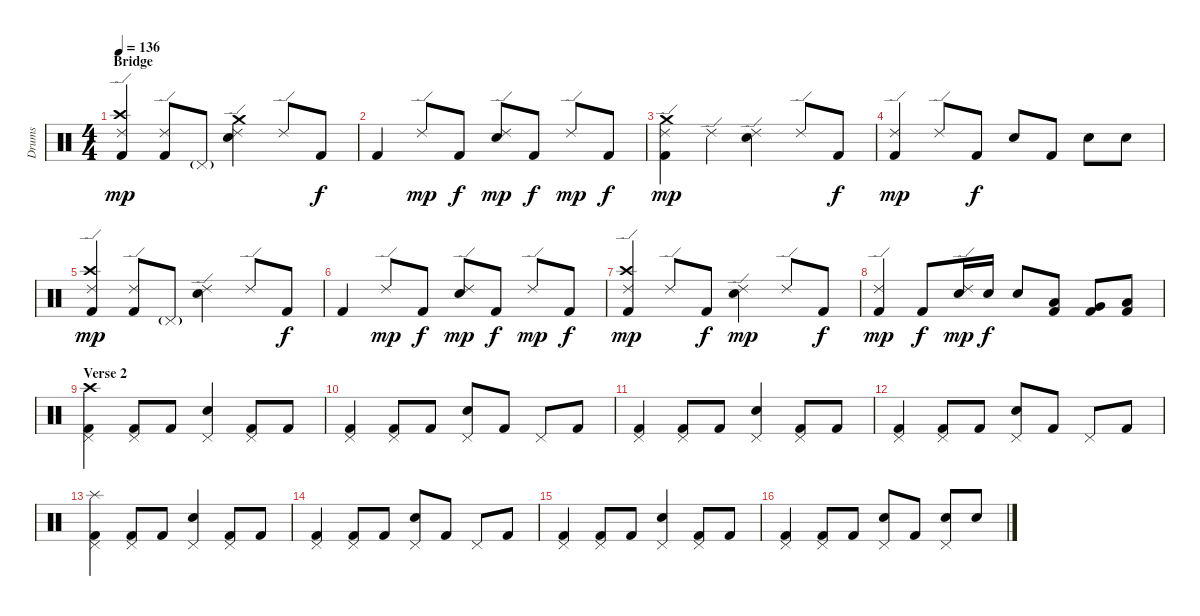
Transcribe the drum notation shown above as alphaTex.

\track ("Drums" "Drums") {instrument percussion}
\staff {score}
\articulation defaults
\ts (4 4)
\section ("" "Bridge")
\tempo 136
\clef neutral
\ks c
("Ride (edge) 2" "Crash high (hit)" "Kick (hit) 2").4{dy mp} ("Ride (edge) 2" "Kick (hit) 2").8 "Pedal Hi-Hat (hit)"{g}.8 ("Ride (edge) 2" "Crash medium (hit)" "Snare (hit) 2").4 "Ride (edge) 2".8 "Kick (hit) 2".8{dy f} |
"Kick (hit) 2".4 "Ride (edge) 2".8{dy mp} "Kick (hit) 2".8{dy f} ("Ride (edge) 2" "Snare (hit) 2").8{dy mp} "Kick (hit) 2".8{dy f} "Ride (edge) 2".8{dy mp} "Kick (hit) 2".8{dy f} |
("Ride (edge) 2" "Crash medium (hit)" "Kick (hit) 2").4{dy mp} "Ride (edge) 2".4 ("Ride (edge) 2" "Snare (hit) 2").4 "Ride (edge) 2".8 "Kick (hit) 2".8{dy f} |
("Ride (edge) 2" "Kick (hit) 2").4{dy mp} "Ride (edge) 2".8 "Kick (hit) 2".8{dy f} "Snare (hit) 2".8 "Kick (hit) 2".8 "Snare (hit) 2".8 "Snare (hit) 2".8 |
("Ride (edge) 2" "Crash high (hit)" "Kick (hit) 2").4{dy mp} ("Ride (edge) 2" "Kick (hit) 2").8 "Pedal Hi-Hat (hit)"{g}.8 ("Ride (edge) 2" "Snare (hit) 2").4 "Ride (edge) 2".8 "Kick (hit) 2".8{dy f} |
"Kick (hit) 2".4 "Ride (edge) 2".8{dy mp} "Kick (hit) 2".8{dy f} ("Ride (edge) 2" "Snare (hit) 2").8{dy mp} "Kick (hit) 2".8{dy f} "Ride (edge) 2".8{dy mp} "Kick (hit) 2".8{dy f} |
("Ride (edge) 2" "Crash high (hit)" "Kick (hit) 2").4{dy mp} "Ride (edge) 2".8 "Kick (hit) 2".8{dy f} ("Ride (edge) 2" "Snare (hit) 2").4{dy mp} "Ride (edge) 2".8 "Kick (hit) 2".8{dy f} |
("Ride (edge) 2" "Kick (hit) 2").4{dy mp} "Kick (hit) 2".8{dy f} ("Ride (edge) 2" "Snare (hit) 2").16{dy mp} "Snare (hit) 2".16{dy f} "Snare (hit) 2".8 ("Low Tom (hit)" "Kick (hit) 2").8 ("Very Low Tom (hit)" "Kick (hit) 2").8 ("Low Floor Tom (hit)" "Kick (hit) 2").8 |
\section ("" "Verse 2")
("Pedal Hi-Hat (hit)" "Crash high (hit)" "Kick (hit) 2").4 ("Pedal Hi-Hat (hit)" "Kick (hit) 2").8 "Kick (hit) 2".8 ("Pedal Hi-Hat (hit)" "Snare (hit) 2").4 ("Pedal Hi-Hat (hit)" "Kick (hit) 2").8 "Kick (hit) 2".8 |
("Pedal Hi-Hat (hit)" "Kick (hit) 2").4 ("Pedal Hi-Hat (hit)" "Kick (hit) 2").8 "Kick (hit) 2".8 ("Pedal Hi-Hat (hit)" "Snare (hit) 2").8 "Kick (hit) 2".8 "Pedal Hi-Hat (hit)".8 "Kick (hit) 2".8 |
("Pedal Hi-Hat (hit)" "Kick (hit) 2").4 ("Pedal Hi-Hat (hit)" "Kick (hit) 2").8 "Kick (hit) 2".8 ("Pedal Hi-Hat (hit)" "Snare (hit) 2").4 ("Pedal Hi-Hat (hit)" "Kick (hit) 2").8 "Kick (hit) 2".8 |
("Pedal Hi-Hat (hit)" "Kick (hit) 2").4 ("Pedal Hi-Hat (hit)" "Kick (hit) 2").8 "Kick (hit) 2".8 ("Pedal Hi-Hat (hit)" "Snare (hit) 2").8 "Kick (hit) 2".8 "Pedal Hi-Hat (hit)".8 "Kick (hit) 2".8 |
("Pedal Hi-Hat (hit)" "Splash (hit)" "Kick (hit) 2").4 ("Pedal Hi-Hat (hit)" "Kick (hit) 2").8 "Kick (hit) 2".8 ("Pedal Hi-Hat (hit)" "Snare (hit) 2").4 ("Pedal Hi-Hat (hit)" "Kick (hit) 2").8 "Kick (hit) 2".8 |
("Pedal Hi-Hat (hit)" "Kick (hit) 2").4 ("Pedal Hi-Hat (hit)" "Kick (hit) 2").8 "Kick (hit) 2".8 ("Pedal Hi-Hat (hit)" "Snare (hit) 2").8 "Kick (hit) 2".8 "Pedal Hi-Hat (hit)".8 "Kick (hit) 2".8 |
("Pedal Hi-Hat (hit)" "Kick (hit) 2").4 ("Pedal Hi-Hat (hit)" "Kick (hit) 2").8 "Kick (hit) 2".8 ("Pedal Hi-Hat (hit)" "Snare (hit) 2").4 ("Pedal Hi-Hat (hit)" "Kick (hit) 2").8 "Kick (hit) 2".8 |
("Pedal Hi-Hat (hit)" "Kick (hit) 2").4 ("Pedal Hi-Hat (hit)" "Kick (hit) 2").8 "Kick (hit) 2".8 ("Pedal Hi-Hat (hit)" "Snare (hit) 2").8 "Kick (hit) 2".8 ("Pedal Hi-Hat (hit)" "Snare (hit) 2").8 "Snare (hit) 2".8
